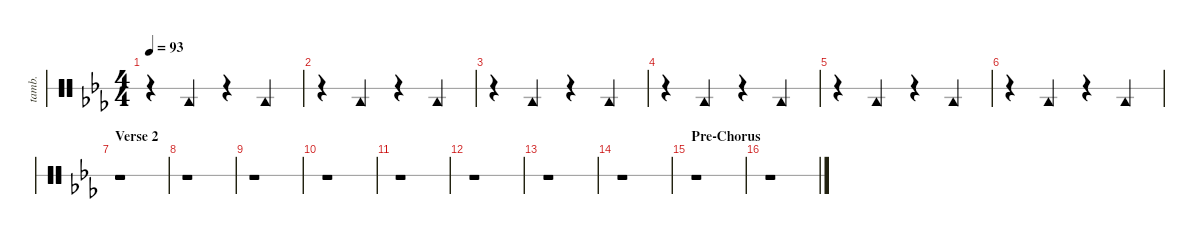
\defaultSystemsLayout 4
\hideDynamics
\bracketExtendMode nobrackets
\otherSystemsTrackNameOrientation horizontal
\track ("Tambourine" "tamb.") {instrument percussion}
\staff {score 1}
\articulation defaults
\ts (4 4)
\tempo 93
\clef neutral
\ks cminor
r.4{dy p} "Tambourine (hit)"{acc forcenatural}.4 r.4 "Tambourine (hit)"{acc forcenatural}.4 |
r.4 "Tambourine (hit)"{acc forcenatural}.4 r.4 "Tambourine (hit)"{acc forcenatural}.4 |
r.4 "Tambourine (hit)"{acc forcenatural}.4 r.4 "Tambourine (hit)"{acc forcenatural}.4 |
r.4 "Tambourine (hit)"{acc forcenatural}.4 r.4 "Tambourine (hit)"{acc forcenatural}.4 |
r.4 "Tambourine (hit)"{acc forcenatural}.4 r.4 "Tambourine (hit)"{acc forcenatural}.4 |
r.4 "Tambourine (hit)"{acc forcenatural}.4 r.4 "Tambourine (hit)"{acc forcenatural}.4 |
\section ("" "Verse 2")
r.1 |
r.1 |
r.1 |
r.1 |
r.1 |
r.1 |
r.1 |
r.1 |
\section ("" "Pre-Chorus")
r.1 |
r.1
